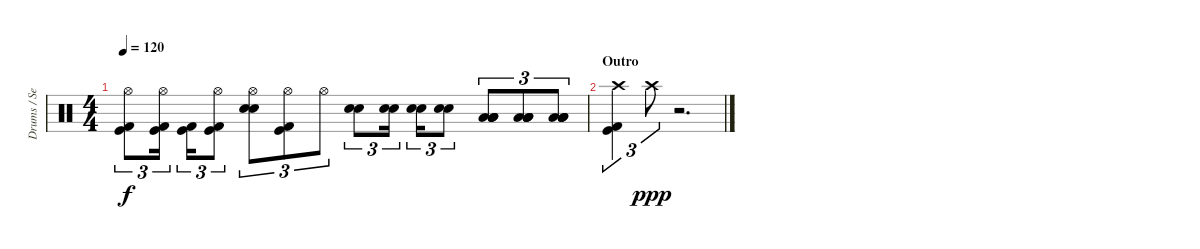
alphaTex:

\track ("Drums / Sean" "Drums / Se") {instrument percussion}
\staff {score}
\articulation defaults
\ts (4 4)
\tempo 120
\clef neutral
\ks c
("Hi-Hat (open)" "Kick (hit)" "Kick (hit) 2").8{tu (3 2) dy f} ("Hi-Hat (open)" "Kick (hit)" "Kick (hit) 2").16{tu (3 2)} ("Kick (hit)" "Kick (hit) 2").16{tu (3 2)} ("Hi-Hat (open)" "Kick (hit)" "Kick (hit) 2").8{tu (3 2)} ("Hi-Hat (open)" "Electric Snare (hit)" "Snare (hit) 2").8{tu (3 2)} ("Hi-Hat (open)" "Kick (hit)" "Kick (hit) 2").8{tu (3 2)} "Hi-Hat (open)".8{tu (3 2)} ("Electric Snare (hit)" "Snare (hit) 2").8{tu (3 2)} ("Electric Snare (hit)" "Snare (hit) 2").16{tu (3 2)} ("Electric Snare (hit)" "Snare (hit) 2").16{tu (3 2)} ("Electric Snare (hit)" "Snare (hit) 2").8{tu (3 2)} ("Low Tom (hit)" "Low Tom (hit)" "Low Floor Tom (hit)" "Low Floor Tom (hit)").8{tu (3 2)} ("Low Tom (hit)" "Low Tom (hit)" "Low Floor Tom (hit)" "Low Floor Tom (hit)").8{tu (3 2)} ("Low Tom (hit)" "Low Tom (hit)" "Low Floor Tom (hit)" "Low Floor Tom (hit)").8{tu (3 2)} |
\section ("" "Outro")
("Crash high (hit)" "Kick (hit)" "Kick (hit) 2").4{tu (3 2)} "Crash high (hit)".8{tu (3 2) dy ppp} r.2{d}
